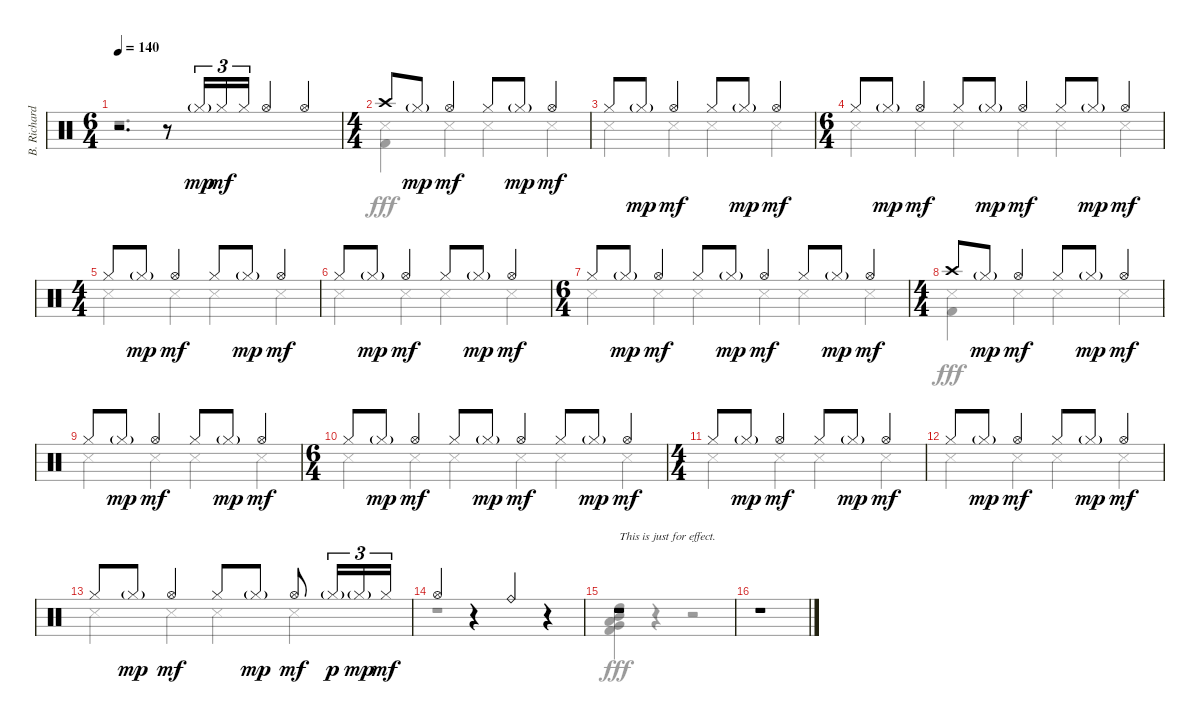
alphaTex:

\track ("B. Richardson Drums" "B. Richard") {instrument percussion}
\staff {score}
\articulation defaults
\voice
\ts (6 4)
\tempo 140
\clef neutral
\ks c
r.2{d dy mf} r.8 "Hi-Hat (closed)"{g}.16{tu (3 2) dy mp} "Hi-Hat (closed)".16{tu (3 2) dy mf} "Hi-Hat (closed)".16{tu (3 2)} "Hi-Hat (open)".4 "Hi-Hat (open)".4 |
\ts (4 4)
"Crash high (hit)".8 "Hi-Hat (closed)"{g}.8{dy mp} "Hi-Hat (open)".4{dy mf} "Hi-Hat (closed)".8 "Hi-Hat (closed)"{g}.8{dy mp} "Hi-Hat (open)".4{dy mf} |
"Hi-Hat (closed)".8 "Hi-Hat (closed)"{g}.8{dy mp} "Hi-Hat (open)".4{dy mf} "Hi-Hat (closed)".8 "Hi-Hat (closed)"{g}.8{dy mp} "Hi-Hat (open)".4{dy mf} |
\ts (6 4)
"Hi-Hat (closed)".8 "Hi-Hat (closed)"{g}.8{dy mp} "Hi-Hat (open)".4{dy mf} "Hi-Hat (closed)".8 "Hi-Hat (closed)"{g}.8{dy mp} "Hi-Hat (open)".4{dy mf} "Hi-Hat (closed)".8 "Hi-Hat (closed)"{g}.8{dy mp} "Hi-Hat (open)".4{dy mf} |
\ts (4 4)
"Hi-Hat (closed)".8 "Hi-Hat (closed)"{g}.8{dy mp} "Hi-Hat (open)".4{dy mf} "Hi-Hat (closed)".8 "Hi-Hat (closed)"{g}.8{dy mp} "Hi-Hat (open)".4{dy mf} |
"Hi-Hat (closed)".8 "Hi-Hat (closed)"{g}.8{dy mp} "Hi-Hat (open)".4{dy mf} "Hi-Hat (closed)".8 "Hi-Hat (closed)"{g}.8{dy mp} "Hi-Hat (open)".4{dy mf} |
\ts (6 4)
"Hi-Hat (closed)".8 "Hi-Hat (closed)"{g}.8{dy mp} "Hi-Hat (open)".4{dy mf} "Hi-Hat (closed)".8 "Hi-Hat (closed)"{g}.8{dy mp} "Hi-Hat (open)".4{dy mf} "Hi-Hat (closed)".8 "Hi-Hat (closed)"{g}.8{dy mp} "Hi-Hat (open)".4{dy mf} |
\ts (4 4)
"Crash high (hit)".8 "Hi-Hat (closed)"{g}.8{dy mp} "Hi-Hat (open)".4{dy mf} "Hi-Hat (closed)".8 "Hi-Hat (closed)"{g}.8{dy mp} "Hi-Hat (open)".4{dy mf} |
"Hi-Hat (closed)".8 "Hi-Hat (closed)"{g}.8{dy mp} "Hi-Hat (open)".4{dy mf} "Hi-Hat (closed)".8 "Hi-Hat (closed)"{g}.8{dy mp} "Hi-Hat (open)".4{dy mf} |
\ts (6 4)
"Hi-Hat (closed)".8 "Hi-Hat (closed)"{g}.8{dy mp} "Hi-Hat (open)".4{dy mf} "Hi-Hat (closed)".8 "Hi-Hat (closed)"{g}.8{dy mp} "Hi-Hat (open)".4{dy mf} "Hi-Hat (closed)".8 "Hi-Hat (closed)"{g}.8{dy mp} "Hi-Hat (open)".4{dy mf} |
\ts (4 4)
"Hi-Hat (closed)".8 "Hi-Hat (closed)"{g}.8{dy mp} "Hi-Hat (open)".4{dy mf} "Hi-Hat (closed)".8 "Hi-Hat (closed)"{g}.8{dy mp} "Hi-Hat (open)".4{dy mf} |
"Hi-Hat (closed)".8 "Hi-Hat (closed)"{g}.8{dy mp} "Hi-Hat (open)".4{dy mf} "Hi-Hat (closed)".8 "Hi-Hat (closed)"{g}.8{dy mp} "Hi-Hat (open)".4{dy mf} |
"Hi-Hat (closed)".8 "Hi-Hat (closed)"{g}.8{dy mp} "Hi-Hat (open)".4{dy mf} "Hi-Hat (closed)".8 "Hi-Hat (closed)"{g}.8{dy mp} "Hi-Hat (open)".8{dy mf} "Hi-Hat (closed)"{g}.16{tu (3 2) dy p} "Hi-Hat (closed)"{g}.16{tu (3 2) dy mp} "Hi-Hat (closed)".16{tu (3 2) dy mf} |
"Hi-Hat (open)".4 r.4 "Ride (bell)".4 r.4 |
r.1{txt "This is just for effect."} |
r.1
\voice
\clef neutral
\ottava regular
\simile none
\ks c
r.1{d dy fff} |
("Snare (side stick) 3" "Kick (hit) 2").4 "Snare (side stick) 3".4{dy mf} "Snare (side stick) 3".4 "Snare (side stick) 3".4 |
"Snare (side stick) 3".4 "Snare (side stick) 3".4 "Snare (side stick) 3".4 "Snare (side stick) 3".4 |
"Snare (side stick) 3".4 "Snare (side stick) 3".4 "Snare (side stick) 3".4 "Snare (side stick) 3".4 "Snare (side stick) 3".4 "Snare (side stick) 3".4 |
"Snare (side stick) 3".4 "Snare (side stick) 3".4 "Snare (side stick) 3".4 "Snare (side stick) 3".4 |
"Snare (side stick) 3".4 "Snare (side stick) 3".4 "Snare (side stick) 3".4 "Snare (side stick) 3".4 |
"Snare (side stick) 3".4 "Snare (side stick) 3".4 "Snare (side stick) 3".4 "Snare (side stick) 3".4 "Snare (side stick) 3".4 "Snare (side stick) 3".4 |
("Snare (side stick) 3" "Kick (hit) 2").4{dy fff} "Snare (side stick) 3".4{dy mf} "Snare (side stick) 3".4 "Snare (side stick) 3".4 |
"Snare (side stick) 3".4 "Snare (side stick) 3".4 "Snare (side stick) 3".4 "Snare (side stick) 3".4 |
"Snare (side stick) 3".4 "Snare (side stick) 3".4 "Snare (side stick) 3".4 "Snare (side stick) 3".4 "Snare (side stick) 3".4 "Snare (side stick) 3".4 |
"Snare (side stick) 3".4 "Snare (side stick) 3".4 "Snare (side stick) 3".4 "Snare (side stick) 3".4 |
"Snare (side stick) 3".4 "Snare (side stick) 3".4 "Snare (side stick) 3".4 "Snare (side stick) 3".4 |
"Snare (side stick) 3".4 "Snare (side stick) 3".4 "Snare (side stick) 3".4 "Snare (side stick) 3".4 |
r.1 |
("High Tom (hit)" "Mid Tom (hit)" "Low Tom (hit)" "Very Low Tom (hit)" "Kick (hit) 2").4{dy fff} r.4 r.2 |
